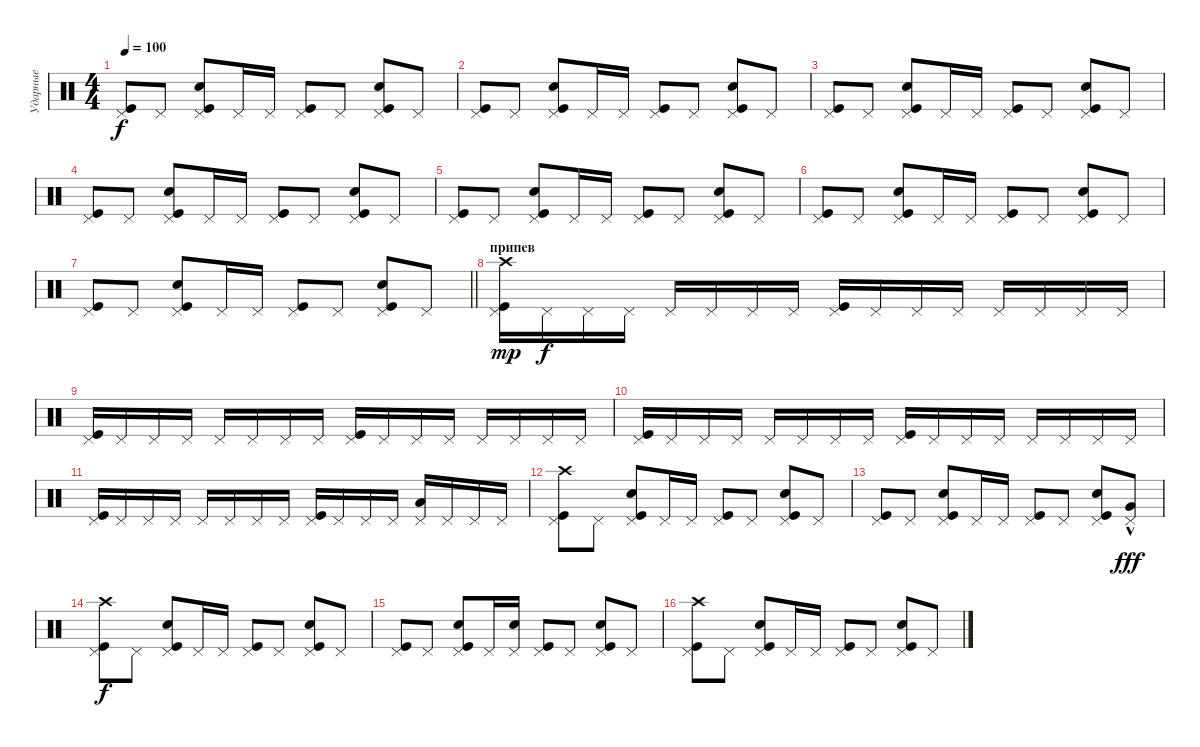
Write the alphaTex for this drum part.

\track ("Ударные" "Ударные") {instrument percussion}
\staff {score}
\articulation defaults
\ts (4 4)
\tempo 100
\clef neutral
\ks c
("Pedal Hi-Hat (hit)" "Kick (hit)").8{dy f} "Pedal Hi-Hat (hit)".8 ("Pedal Hi-Hat (hit)" "Snare (hit) 2" "Kick (hit)").8 "Pedal Hi-Hat (hit)".16 "Pedal Hi-Hat (hit)".16 ("Pedal Hi-Hat (hit)" "Kick (hit)").8 "Pedal Hi-Hat (hit)".8 ("Pedal Hi-Hat (hit)" "Kick (hit)" "Snare (hit) 2").8 "Pedal Hi-Hat (hit)".8 |
("Pedal Hi-Hat (hit)" "Kick (hit)").8 "Pedal Hi-Hat (hit)".8 ("Pedal Hi-Hat (hit)" "Kick (hit)" "Snare (hit) 2").8 "Pedal Hi-Hat (hit)".16 "Pedal Hi-Hat (hit)".16 ("Pedal Hi-Hat (hit)" "Kick (hit)").8 "Pedal Hi-Hat (hit)".8 ("Pedal Hi-Hat (hit)" "Kick (hit)" "Snare (hit) 2").8 "Pedal Hi-Hat (hit)".8 |
("Pedal Hi-Hat (hit)" "Kick (hit)").8 "Pedal Hi-Hat (hit)".8 ("Pedal Hi-Hat (hit)" "Kick (hit)" "Snare (hit) 2").8 "Pedal Hi-Hat (hit)".16 "Pedal Hi-Hat (hit)".16 ("Pedal Hi-Hat (hit)" "Kick (hit)").8 "Pedal Hi-Hat (hit)".8 ("Pedal Hi-Hat (hit)" "Kick (hit)" "Snare (hit) 2").8 "Pedal Hi-Hat (hit)".8 |
("Pedal Hi-Hat (hit)" "Kick (hit)").8 "Pedal Hi-Hat (hit)".8 ("Pedal Hi-Hat (hit)" "Kick (hit)" "Snare (hit) 2").8 "Pedal Hi-Hat (hit)".16 "Pedal Hi-Hat (hit)".16 ("Pedal Hi-Hat (hit)" "Kick (hit)").8 "Pedal Hi-Hat (hit)".8 ("Pedal Hi-Hat (hit)" "Kick (hit)" "Snare (hit) 2").8 "Pedal Hi-Hat (hit)".8 |
("Pedal Hi-Hat (hit)" "Kick (hit)").8 "Pedal Hi-Hat (hit)".8 ("Pedal Hi-Hat (hit)" "Kick (hit)" "Snare (hit) 2").8 "Pedal Hi-Hat (hit)".16 "Pedal Hi-Hat (hit)".16 ("Pedal Hi-Hat (hit)" "Kick (hit)").8 "Pedal Hi-Hat (hit)".8 ("Pedal Hi-Hat (hit)" "Kick (hit)" "Snare (hit) 2").8 "Pedal Hi-Hat (hit)".8 |
("Pedal Hi-Hat (hit)" "Kick (hit)").8 "Pedal Hi-Hat (hit)".8 ("Pedal Hi-Hat (hit)" "Kick (hit)" "Snare (hit) 2").8 "Pedal Hi-Hat (hit)".16 "Pedal Hi-Hat (hit)".16 ("Pedal Hi-Hat (hit)" "Kick (hit)").8 "Pedal Hi-Hat (hit)".8 ("Pedal Hi-Hat (hit)" "Kick (hit)" "Snare (hit) 2").8 "Pedal Hi-Hat (hit)".8 |
\barLineRight lightlight
("Pedal Hi-Hat (hit)" "Kick (hit)").8 "Pedal Hi-Hat (hit)".8 ("Pedal Hi-Hat (hit)" "Kick (hit)" "Snare (hit) 2").8 "Pedal Hi-Hat (hit)".16 "Pedal Hi-Hat (hit)".16 ("Pedal Hi-Hat (hit)" "Kick (hit)").8 "Pedal Hi-Hat (hit)".8 ("Pedal Hi-Hat (hit)" "Kick (hit)" "Snare (hit) 2").8 "Pedal Hi-Hat (hit)".8 |
\section ("" "припев")
("Pedal Hi-Hat (hit)" "Kick (hit)" "Crash high (hit)").16{dy mp} "Pedal Hi-Hat (hit)".16{dy f} "Pedal Hi-Hat (hit)".16 "Pedal Hi-Hat (hit)".16 "Pedal Hi-Hat (hit)".16 "Pedal Hi-Hat (hit)".16 "Pedal Hi-Hat (hit)".16 "Pedal Hi-Hat (hit)".16 ("Pedal Hi-Hat (hit)" "Kick (hit)").16 "Pedal Hi-Hat (hit)".16 "Pedal Hi-Hat (hit)".16 "Pedal Hi-Hat (hit)".16 "Pedal Hi-Hat (hit)".16 "Pedal Hi-Hat (hit)".16 "Pedal Hi-Hat (hit)".16 "Pedal Hi-Hat (hit)".16 |
("Pedal Hi-Hat (hit)" "Kick (hit)").16 "Pedal Hi-Hat (hit)".16 "Pedal Hi-Hat (hit)".16 "Pedal Hi-Hat (hit)".16 "Pedal Hi-Hat (hit)".16 "Pedal Hi-Hat (hit)".16 "Pedal Hi-Hat (hit)".16 "Pedal Hi-Hat (hit)".16 ("Pedal Hi-Hat (hit)" "Kick (hit)").16 "Pedal Hi-Hat (hit)".16 "Pedal Hi-Hat (hit)".16 "Pedal Hi-Hat (hit)".16 "Pedal Hi-Hat (hit)".16 "Pedal Hi-Hat (hit)".16 "Pedal Hi-Hat (hit)".16 "Pedal Hi-Hat (hit)".16 |
("Pedal Hi-Hat (hit)" "Kick (hit)").16 "Pedal Hi-Hat (hit)".16 "Pedal Hi-Hat (hit)".16 "Pedal Hi-Hat (hit)".16 "Pedal Hi-Hat (hit)".16 "Pedal Hi-Hat (hit)".16 "Pedal Hi-Hat (hit)".16 "Pedal Hi-Hat (hit)".16 ("Pedal Hi-Hat (hit)" "Kick (hit)").16 "Pedal Hi-Hat (hit)".16 "Pedal Hi-Hat (hit)".16 "Pedal Hi-Hat (hit)".16 "Pedal Hi-Hat (hit)".16 "Pedal Hi-Hat (hit)".16 "Pedal Hi-Hat (hit)".16 "Pedal Hi-Hat (hit)".16 |
("Pedal Hi-Hat (hit)" "Kick (hit)").16 "Pedal Hi-Hat (hit)".16 "Pedal Hi-Hat (hit)".16 "Pedal Hi-Hat (hit)".16 "Pedal Hi-Hat (hit)".16 "Pedal Hi-Hat (hit)".16 "Pedal Hi-Hat (hit)".16 "Pedal Hi-Hat (hit)".16 ("Pedal Hi-Hat (hit)" "Kick (hit)").16 "Pedal Hi-Hat (hit)".16 "Pedal Hi-Hat (hit)".16 "Pedal Hi-Hat (hit)".16 ("Pedal Hi-Hat (hit)" "Low Tom (hit)").16 "Pedal Hi-Hat (hit)".16 "Pedal Hi-Hat (hit)".16 "Pedal Hi-Hat (hit)".16 |
("Pedal Hi-Hat (hit)" "Kick (hit)" "Crash high (hit)").8 "Pedal Hi-Hat (hit)".8 ("Pedal Hi-Hat (hit)" "Kick (hit)" "Snare (hit) 2").8 "Pedal Hi-Hat (hit)".16 "Pedal Hi-Hat (hit)".16 ("Pedal Hi-Hat (hit)" "Kick (hit)").8 "Pedal Hi-Hat (hit)".8 ("Pedal Hi-Hat (hit)" "Kick (hit)" "Snare (hit) 2").8 "Pedal Hi-Hat (hit)".8 |
("Pedal Hi-Hat (hit)" "Kick (hit)").8 "Pedal Hi-Hat (hit)".8 ("Pedal Hi-Hat (hit)" "Kick (hit)" "Snare (hit) 2").8 "Pedal Hi-Hat (hit)".16 "Pedal Hi-Hat (hit)".16 ("Pedal Hi-Hat (hit)" "Kick (hit)").8 "Pedal Hi-Hat (hit)".8 ("Pedal Hi-Hat (hit)" "Kick (hit)" "Snare (hit) 2").8 ("Pedal Hi-Hat (hit)" "Very Low Tom (hit)"{hac}).8{dy fff} |
("Pedal Hi-Hat (hit)" "Kick (hit)" "Crash high (hit)").8{dy f} "Pedal Hi-Hat (hit)".8 ("Pedal Hi-Hat (hit)" "Kick (hit)" "Snare (hit) 2").8 "Pedal Hi-Hat (hit)".16 "Pedal Hi-Hat (hit)".16 ("Pedal Hi-Hat (hit)" "Kick (hit)").8 "Pedal Hi-Hat (hit)".8 ("Pedal Hi-Hat (hit)" "Kick (hit)" "Snare (hit) 2").8 "Pedal Hi-Hat (hit)".8 |
("Kick (hit)" "Pedal Hi-Hat (hit)").8 "Pedal Hi-Hat (hit)".8 ("Kick (hit)" "Snare (hit) 2" "Pedal Hi-Hat (hit)").8 "Pedal Hi-Hat (hit)".16 ("Snare (hit) 2" "Pedal Hi-Hat (hit)").16 ("Kick (hit)" "Pedal Hi-Hat (hit)").8 "Pedal Hi-Hat (hit)".8 ("Kick (hit)" "Snare (hit) 2" "Pedal Hi-Hat (hit)").8 "Pedal Hi-Hat (hit)".8 |
("Kick (hit)" "Crash high (hit)" "Pedal Hi-Hat (hit)").8 "Pedal Hi-Hat (hit)".8 ("Kick (hit)" "Snare (hit) 2" "Pedal Hi-Hat (hit)").8 "Pedal Hi-Hat (hit)".16 "Pedal Hi-Hat (hit)".16 ("Kick (hit)" "Pedal Hi-Hat (hit)").8 "Pedal Hi-Hat (hit)".8 ("Kick (hit)" "Snare (hit) 2" "Pedal Hi-Hat (hit)").8 "Pedal Hi-Hat (hit)".8
